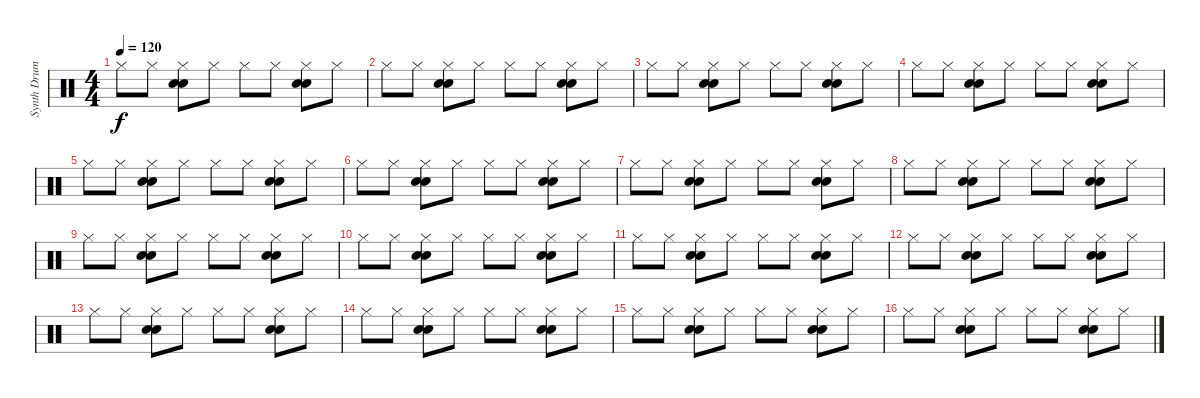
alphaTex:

\track ("Synth Drums" "Synth Drum") {instrument percussion}
\staff {score}
\articulation defaults
\ts (4 4)
\tempo 120
\clef neutral
\ks c "Hi-Hat (closed)".8{dy f} "Hi-Hat (closed)".8
("Hi-Hat (closed)" "Snare (hit) 2" "Hand Clap (hit)").8 "Hi-Hat (closed)".8 "Hi-Hat (closed)".8 "Hi-Hat (closed)".8 ("Hi-Hat (closed)" "Snare (hit) 2" "Hand Clap (hit)").8 "Hi-Hat (closed)".8 |
"Hi-Hat (closed)".8 "Hi-Hat (closed)".8 ("Hi-Hat (closed)" "Snare (hit) 2" "Hand Clap (hit)").8 "Hi-Hat (closed)".8 "Hi-Hat (closed)".8 "Hi-Hat (closed)".8 ("Hi-Hat (closed)" "Snare (hit) 2" "Hand Clap (hit)").8 "Hi-Hat (closed)".8 |
"Hi-Hat (closed)".8 "Hi-Hat (closed)".8 ("Hi-Hat (closed)" "Snare (hit) 2" "Hand Clap (hit)").8 "Hi-Hat (closed)".8 "Hi-Hat (closed)".8 "Hi-Hat (closed)".8 ("Hi-Hat (closed)" "Snare (hit) 2" "Hand Clap (hit)").8 "Hi-Hat (closed)".8 |
"Hi-Hat (closed)".8 "Hi-Hat (closed)".8 ("Hi-Hat (closed)" "Snare (hit) 2" "Hand Clap (hit)").8 "Hi-Hat (closed)".8 "Hi-Hat (closed)".8 "Hi-Hat (closed)".8 ("Hi-Hat (closed)" "Snare (hit) 2" "Hand Clap (hit)").8 "Hi-Hat (closed)".8 |
"Hi-Hat (closed)".8 "Hi-Hat (closed)".8 ("Hi-Hat (closed)" "Snare (hit) 2" "Hand Clap (hit)").8 "Hi-Hat (closed)".8 "Hi-Hat (closed)".8 "Hi-Hat (closed)".8 ("Hi-Hat (closed)" "Snare (hit) 2" "Hand Clap (hit)").8 "Hi-Hat (closed)".8 |
"Hi-Hat (closed)".8 "Hi-Hat (closed)".8 ("Hi-Hat (closed)" "Snare (hit) 2" "Hand Clap (hit)").8 "Hi-Hat (closed)".8 "Hi-Hat (closed)".8 "Hi-Hat (closed)".8 ("Hi-Hat (closed)" "Snare (hit) 2" "Hand Clap (hit)").8 "Hi-Hat (closed)".8 |
"Hi-Hat (closed)".8 "Hi-Hat (closed)".8 ("Hi-Hat (closed)" "Snare (hit) 2" "Hand Clap (hit)").8 "Hi-Hat (closed)".8 "Hi-Hat (closed)".8 "Hi-Hat (closed)".8 ("Hi-Hat (closed)" "Snare (hit) 2" "Hand Clap (hit)").8 "Hi-Hat (closed)".8 |
"Hi-Hat (closed)".8 "Hi-Hat (closed)".8 ("Hi-Hat (closed)" "Snare (hit) 2" "Hand Clap (hit)").8 "Hi-Hat (closed)".8 "Hi-Hat (closed)".8 "Hi-Hat (closed)".8 ("Hi-Hat (closed)" "Snare (hit) 2" "Hand Clap (hit)").8 "Hi-Hat (closed)".8 |
"Hi-Hat (closed)".8 "Hi-Hat (closed)".8 ("Hi-Hat (closed)" "Snare (hit) 2" "Hand Clap (hit)").8 "Hi-Hat (closed)".8 "Hi-Hat (closed)".8 "Hi-Hat (closed)".8 ("Hi-Hat (closed)" "Snare (hit) 2" "Hand Clap (hit)").8 "Hi-Hat (closed)".8 |
"Hi-Hat (closed)".8 "Hi-Hat (closed)".8 ("Hi-Hat (closed)" "Snare (hit) 2" "Hand Clap (hit)").8 "Hi-Hat (closed)".8 "Hi-Hat (closed)".8 "Hi-Hat (closed)".8 ("Hi-Hat (closed)" "Snare (hit) 2" "Hand Clap (hit)").8 "Hi-Hat (closed)".8 |
"Hi-Hat (closed)".8 "Hi-Hat (closed)".8 ("Hi-Hat (closed)" "Snare (hit) 2" "Hand Clap (hit)").8 "Hi-Hat (closed)".8 "Hi-Hat (closed)".8 "Hi-Hat (closed)".8 ("Hi-Hat (closed)" "Snare (hit) 2" "Hand Clap (hit)").8 "Hi-Hat (closed)".8 |
"Hi-Hat (closed)".8 "Hi-Hat (closed)".8 ("Hi-Hat (closed)" "Snare (hit) 2" "Hand Clap (hit)").8 "Hi-Hat (closed)".8 "Hi-Hat (closed)".8 "Hi-Hat (closed)".8 ("Hi-Hat (closed)" "Snare (hit) 2" "Hand Clap (hit)").8 "Hi-Hat (closed)".8 |
"Hi-Hat (closed)".8 "Hi-Hat (closed)".8 ("Hi-Hat (closed)" "Snare (hit) 2" "Hand Clap (hit)").8 "Hi-Hat (closed)".8 "Hi-Hat (closed)".8 "Hi-Hat (closed)".8 ("Hi-Hat (closed)" "Snare (hit) 2" "Hand Clap (hit)").8 "Hi-Hat (closed)".8 |
"Hi-Hat (closed)".8 "Hi-Hat (closed)".8 ("Hi-Hat (closed)" "Snare (hit) 2" "Hand Clap (hit)").8 "Hi-Hat (closed)".8 "Hi-Hat (closed)".8 "Hi-Hat (closed)".8 ("Hi-Hat (closed)" "Snare (hit) 2" "Hand Clap (hit)").8 "Hi-Hat (closed)".8 |
"Hi-Hat (closed)".8 "Hi-Hat (closed)".8 ("Hi-Hat (closed)" "Snare (hit) 2" "Hand Clap (hit)").8 "Hi-Hat (closed)".8 "Hi-Hat (closed)".8 "Hi-Hat (closed)".8 ("Hi-Hat (closed)" "Snare (hit) 2" "Hand Clap (hit)").8 "Hi-Hat (closed)".8 |
"Hi-Hat (closed)".8 "Hi-Hat (closed)".8 ("Hi-Hat (closed)" "Snare (hit) 2" "Hand Clap (hit)").8 "Hi-Hat (closed)".8 "Hi-Hat (closed)".8 "Hi-Hat (closed)".8 ("Hi-Hat (closed)" "Snare (hit) 2" "Hand Clap (hit)").8 "Hi-Hat (closed)".8
